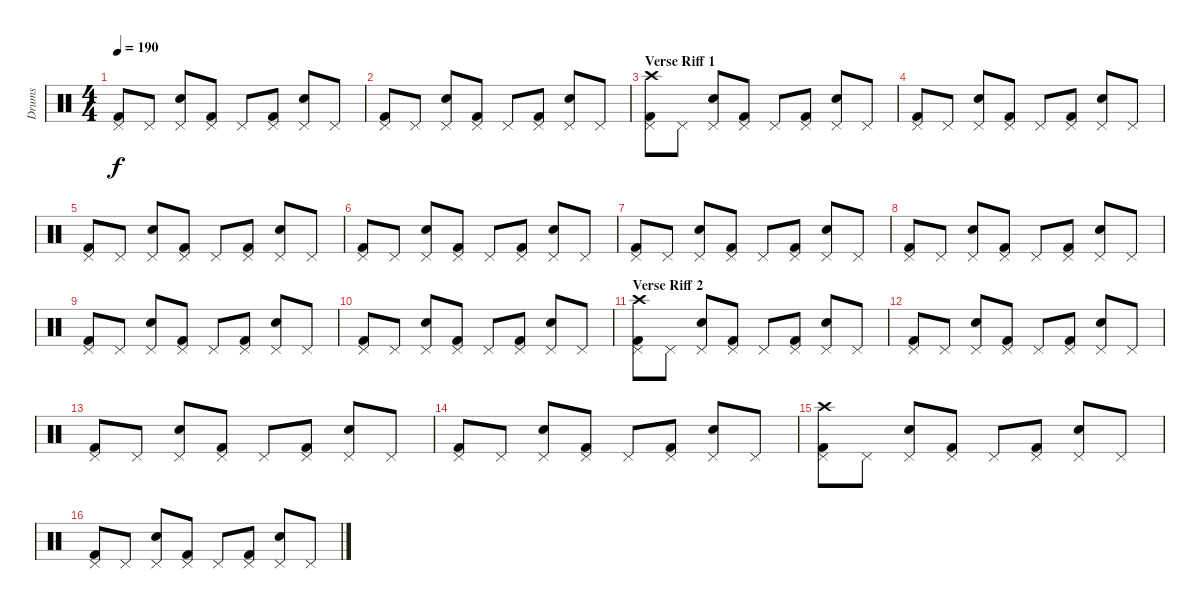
\track ("Drums" "Drums") {instrument percussion}
\staff {score}
\articulation defaults
\ts (4 4)
\tempo 190
\clef neutral
\ks c
("Kick (hit) 2" "Pedal Hi-Hat (hit)").8{dy f} "Pedal Hi-Hat (hit)".8 ("Snare (hit) 2" "Pedal Hi-Hat (hit)").8 ("Kick (hit) 2" "Pedal Hi-Hat (hit)").8 "Pedal Hi-Hat (hit)".8 ("Kick (hit) 2" "Pedal Hi-Hat (hit)").8 ("Snare (hit) 2" "Pedal Hi-Hat (hit)").8 "Pedal Hi-Hat (hit)".8 |
("Kick (hit) 2" "Pedal Hi-Hat (hit)").8 "Pedal Hi-Hat (hit)".8 ("Snare (hit) 2" "Pedal Hi-Hat (hit)").8 ("Kick (hit) 2" "Pedal Hi-Hat (hit)").8 "Pedal Hi-Hat (hit)".8 ("Kick (hit) 2" "Pedal Hi-Hat (hit)").8 ("Snare (hit) 2" "Pedal Hi-Hat (hit)").8 "Pedal Hi-Hat (hit)".8 |
\section ("" "Verse Riff 1")
("Kick (hit) 2" "Pedal Hi-Hat (hit)" "Crash high (hit)").8 "Pedal Hi-Hat (hit)".8 ("Snare (hit) 2" "Pedal Hi-Hat (hit)").8 ("Kick (hit) 2" "Pedal Hi-Hat (hit)").8 "Pedal Hi-Hat (hit)".8 ("Kick (hit) 2" "Pedal Hi-Hat (hit)").8 ("Snare (hit) 2" "Pedal Hi-Hat (hit)").8 "Pedal Hi-Hat (hit)".8 |
("Kick (hit) 2" "Pedal Hi-Hat (hit)").8 "Pedal Hi-Hat (hit)".8 ("Snare (hit) 2" "Pedal Hi-Hat (hit)").8 ("Kick (hit) 2" "Pedal Hi-Hat (hit)").8 "Pedal Hi-Hat (hit)".8 ("Kick (hit) 2" "Pedal Hi-Hat (hit)").8 ("Snare (hit) 2" "Pedal Hi-Hat (hit)").8 "Pedal Hi-Hat (hit)".8 |
("Kick (hit) 2" "Pedal Hi-Hat (hit)").8 "Pedal Hi-Hat (hit)".8 ("Snare (hit) 2" "Pedal Hi-Hat (hit)").8 ("Kick (hit) 2" "Pedal Hi-Hat (hit)").8 "Pedal Hi-Hat (hit)".8 ("Kick (hit) 2" "Pedal Hi-Hat (hit)").8 ("Snare (hit) 2" "Pedal Hi-Hat (hit)").8 "Pedal Hi-Hat (hit)".8 |
("Kick (hit) 2" "Pedal Hi-Hat (hit)").8 "Pedal Hi-Hat (hit)".8 ("Snare (hit) 2" "Pedal Hi-Hat (hit)").8 ("Kick (hit) 2" "Pedal Hi-Hat (hit)").8 "Pedal Hi-Hat (hit)".8 ("Kick (hit) 2" "Pedal Hi-Hat (hit)").8 ("Snare (hit) 2" "Pedal Hi-Hat (hit)").8 "Pedal Hi-Hat (hit)".8 |
("Kick (hit) 2" "Pedal Hi-Hat (hit)").8 "Pedal Hi-Hat (hit)".8 ("Snare (hit) 2" "Pedal Hi-Hat (hit)").8 ("Kick (hit) 2" "Pedal Hi-Hat (hit)").8 "Pedal Hi-Hat (hit)".8 ("Kick (hit) 2" "Pedal Hi-Hat (hit)").8 ("Snare (hit) 2" "Pedal Hi-Hat (hit)").8 "Pedal Hi-Hat (hit)".8 |
("Kick (hit) 2" "Pedal Hi-Hat (hit)").8 "Pedal Hi-Hat (hit)".8 ("Snare (hit) 2" "Pedal Hi-Hat (hit)").8 ("Kick (hit) 2" "Pedal Hi-Hat (hit)").8 "Pedal Hi-Hat (hit)".8 ("Kick (hit) 2" "Pedal Hi-Hat (hit)").8 ("Snare (hit) 2" "Pedal Hi-Hat (hit)").8 "Pedal Hi-Hat (hit)".8 |
("Kick (hit) 2" "Pedal Hi-Hat (hit)").8 "Pedal Hi-Hat (hit)".8 ("Snare (hit) 2" "Pedal Hi-Hat (hit)").8 ("Kick (hit) 2" "Pedal Hi-Hat (hit)").8 "Pedal Hi-Hat (hit)".8 ("Kick (hit) 2" "Pedal Hi-Hat (hit)").8 ("Snare (hit) 2" "Pedal Hi-Hat (hit)").8 "Pedal Hi-Hat (hit)".8 |
("Kick (hit) 2" "Pedal Hi-Hat (hit)").8 "Pedal Hi-Hat (hit)".8 ("Snare (hit) 2" "Pedal Hi-Hat (hit)").8 ("Kick (hit) 2" "Pedal Hi-Hat (hit)").8 "Pedal Hi-Hat (hit)".8 ("Kick (hit) 2" "Pedal Hi-Hat (hit)").8 ("Snare (hit) 2" "Pedal Hi-Hat (hit)").8 "Pedal Hi-Hat (hit)".8 |
\section ("" "Verse Riff 2")
("Kick (hit) 2" "Pedal Hi-Hat (hit)" "Crash high (hit)").8 "Pedal Hi-Hat (hit)".8 ("Snare (hit) 2" "Pedal Hi-Hat (hit)").8 ("Kick (hit) 2" "Pedal Hi-Hat (hit)").8 "Pedal Hi-Hat (hit)".8 ("Kick (hit) 2" "Pedal Hi-Hat (hit)").8 ("Snare (hit) 2" "Pedal Hi-Hat (hit)").8 "Pedal Hi-Hat (hit)".8 |
("Kick (hit) 2" "Pedal Hi-Hat (hit)").8 "Pedal Hi-Hat (hit)".8 ("Snare (hit) 2" "Pedal Hi-Hat (hit)").8 ("Kick (hit) 2" "Pedal Hi-Hat (hit)").8 "Pedal Hi-Hat (hit)".8 ("Kick (hit) 2" "Pedal Hi-Hat (hit)").8 ("Snare (hit) 2" "Pedal Hi-Hat (hit)").8 "Pedal Hi-Hat (hit)".8 |
("Kick (hit) 2" "Pedal Hi-Hat (hit)").8 "Pedal Hi-Hat (hit)".8 ("Snare (hit) 2" "Pedal Hi-Hat (hit)").8 ("Kick (hit) 2" "Pedal Hi-Hat (hit)").8 "Pedal Hi-Hat (hit)".8 ("Kick (hit) 2" "Pedal Hi-Hat (hit)").8 ("Snare (hit) 2" "Pedal Hi-Hat (hit)").8 "Pedal Hi-Hat (hit)".8 |
("Kick (hit) 2" "Pedal Hi-Hat (hit)").8 "Pedal Hi-Hat (hit)".8 ("Snare (hit) 2" "Pedal Hi-Hat (hit)").8 ("Kick (hit) 2" "Pedal Hi-Hat (hit)").8 "Pedal Hi-Hat (hit)".8 ("Kick (hit) 2" "Pedal Hi-Hat (hit)").8 ("Snare (hit) 2" "Pedal Hi-Hat (hit)").8 "Pedal Hi-Hat (hit)".8 |
("Kick (hit) 2" "Pedal Hi-Hat (hit)" "Crash high (hit)").8 "Pedal Hi-Hat (hit)".8 ("Snare (hit) 2" "Pedal Hi-Hat (hit)").8 ("Kick (hit) 2" "Pedal Hi-Hat (hit)").8 "Pedal Hi-Hat (hit)".8 ("Kick (hit) 2" "Pedal Hi-Hat (hit)").8 ("Snare (hit) 2" "Pedal Hi-Hat (hit)").8 "Pedal Hi-Hat (hit)".8 |
("Kick (hit) 2" "Pedal Hi-Hat (hit)").8 "Pedal Hi-Hat (hit)".8 ("Snare (hit) 2" "Pedal Hi-Hat (hit)").8 ("Kick (hit) 2" "Pedal Hi-Hat (hit)").8 "Pedal Hi-Hat (hit)".8 ("Kick (hit) 2" "Pedal Hi-Hat (hit)").8 ("Snare (hit) 2" "Pedal Hi-Hat (hit)").8 "Pedal Hi-Hat (hit)".8
